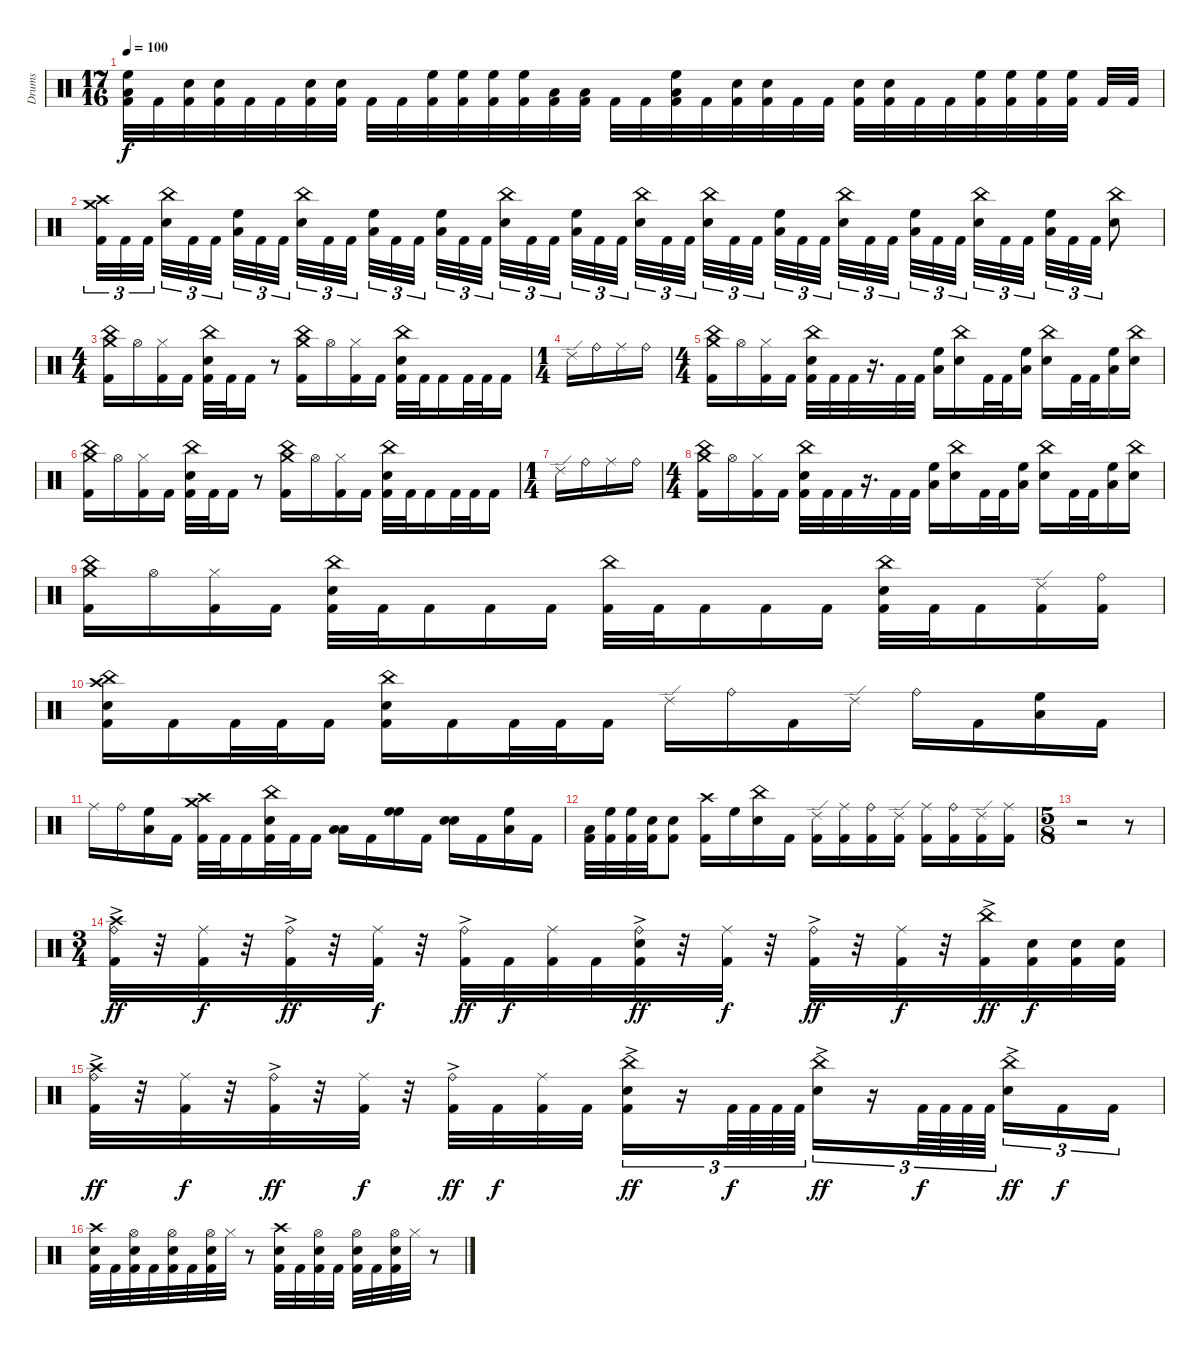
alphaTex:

\track ("Drums" "Drums") {instrument percussion}
\staff {score}
\articulation defaults
\ts (17 16)
\tempo 100
\clef neutral
\ks c
("High Floor Tom (hit)" "Low Tom (hit)" "Kick (hit) 2").32{dy f} "Kick (hit) 2".32 ("Electric Snare (hit)" "Kick (hit) 2").32 ("Electric Snare (hit)" "Kick (hit) 2").32 "Kick (hit) 2".32 "Kick (hit) 2".32 ("Electric Snare (hit)" "Kick (hit) 2").32 ("Electric Snare (hit)" "Kick (hit) 2").32 "Kick (hit) 2".32 "Kick (hit) 2".32 ("High Floor Tom (hit)" "Kick (hit) 2").32 ("High Floor Tom (hit)" "Kick (hit) 2").32 ("High Floor Tom (hit)" "Kick (hit) 2").32 ("High Floor Tom (hit)" "Kick (hit) 2").32 ("Low Tom (hit)" "Kick (hit) 2").32 ("Low Tom (hit)" "Kick (hit) 2").32 "Kick (hit) 2".32 "Kick (hit) 2".32 ("High Floor Tom (hit)" "Low Tom (hit)" "Kick (hit) 2").32 "Kick (hit) 2".32 ("Electric Snare (hit)" "Kick (hit) 2").32 ("Electric Snare (hit)" "Kick (hit) 2").32 "Kick (hit) 2".32 "Kick (hit) 2".32 ("Electric Snare (hit)" "Kick (hit) 2").32 ("Electric Snare (hit)" "Kick (hit) 2").32 "Kick (hit) 2".32 "Kick (hit) 2".32 ("High Floor Tom (hit)" "Kick (hit) 2").32 ("High Floor Tom (hit)" "Kick (hit) 2").32 ("High Floor Tom (hit)" "Kick (hit) 2").32 ("High Floor Tom (hit)" "Kick (hit) 2").32 "Kick (hit) 2".32 "Kick (hit) 2".32 |
("Crash high (hit)" "Crash medium (hit)" "Kick (hit) 2").32{tu (3 2)} "Kick (hit) 2".32{tu (3 2)} "Kick (hit) 2".32{tu (3 2)} ("China (hit)" "Electric Snare (hit)").32{tu (3 2)} "Kick (hit) 2".32{tu (3 2)} "Kick (hit) 2".32{tu (3 2)} ("High Floor Tom (hit)" "Low Tom (hit)").32{tu (3 2)} "Kick (hit) 2".32{tu (3 2)} "Kick (hit) 2".32{tu (3 2)} ("China (hit)" "Electric Snare (hit)").32{tu (3 2)} "Kick (hit) 2".32{tu (3 2)} "Kick (hit) 2".32{tu (3 2)} ("High Floor Tom (hit)" "Low Tom (hit)").32{tu (3 2)} "Kick (hit) 2".32{tu (3 2)} "Kick (hit) 2".32{tu (3 2)} ("High Floor Tom (hit)" "Low Tom (hit)").32{tu (3 2)} "Kick (hit) 2".32{tu (3 2)} "Kick (hit) 2".32{tu (3 2)} ("China (hit)" "Electric Snare (hit)").32{tu (3 2)} "Kick (hit) 2".32{tu (3 2)} "Kick (hit) 2".32{tu (3 2)} ("High Floor Tom (hit)" "Low Tom (hit)").32{tu (3 2)} "Kick (hit) 2".32{tu (3 2)} "Kick (hit) 2".32{tu (3 2)} ("China (hit)" "Electric Snare (hit)").32{tu (3 2)} "Kick (hit) 2".32{tu (3 2)} "Kick (hit) 2".32{tu (3 2)} ("China (hit)" "Electric Snare (hit)").32{tu (3 2)} "Kick (hit) 2".32{tu (3 2)} "Kick (hit) 2".32{tu (3 2)} ("High Floor Tom (hit)" "Low Tom (hit)").32{tu (3 2)} "Kick (hit) 2".32{tu (3 2)} "Kick (hit) 2".32{tu (3 2)} ("China (hit)" "Electric Snare (hit)").32{tu (3 2)} "Kick (hit) 2".32{tu (3 2)} "Kick (hit) 2".32{tu (3 2)} ("High Floor Tom (hit)" "Low Tom (hit)").32{tu (3 2)} "Kick (hit) 2".32{tu (3 2)} "Kick (hit) 2".32{tu (3 2)} ("China (hit)" "Electric Snare (hit)").32{tu (3 2)} "Kick (hit) 2".32{tu (3 2)} "Kick (hit) 2".32{tu (3 2)} ("High Floor Tom (hit)" "Low Tom (hit)").32{tu (3 2)} "Kick (hit) 2".32{tu (3 2)} "Kick (hit) 2".32{tu (3 2)} ("China (hit)" "Electric Snare (hit)").8 |
\ts (4 4)
("China (hit)" "Crash medium (hit)" "Kick (hit) 2").16 "Hi-Hat (open)".16 ("Hi-Hat (closed)" "Kick (hit) 2").16 "Kick (hit) 2".16 ("China (hit)" "Electric Snare (hit)" "Kick (hit) 2").32 "Kick (hit) 2".32 "Kick (hit) 2".16 r.8 ("China (hit)" "Crash medium (hit)" "Kick (hit) 2").16 "Hi-Hat (open)".16 ("Hi-Hat (closed)" "Kick (hit) 2").16 "Kick (hit) 2".16 ("China (hit)" "Electric Snare (hit)" "Kick (hit) 2").32 "Kick (hit) 2".32 "Kick (hit) 2".16 "Kick (hit) 2".32 "Kick (hit) 2".32 "Kick (hit) 2".16 |
\ts (1 4)
"Ride (edge) 2".16 "Ride (bell)".16 "Ride (middle)".16 "Ride (bell)".16 |
\ts (4 4)
("China (hit)" "Crash medium (hit)" "Kick (hit) 2").16 "Hi-Hat (open)".16 ("Hi-Hat (closed)" "Kick (hit) 2").16 "Kick (hit) 2".16 ("China (hit)" "Electric Snare (hit)" "Kick (hit) 2").32 "Kick (hit) 2".32 "Kick (hit) 2".32 r.16{d} "Kick (hit) 2".32 "Kick (hit) 2".32 ("High Floor Tom (hit)" "Low Tom (hit)").16 ("Electric Snare (hit)" "China (hit)").16 "Kick (hit) 2".32 "Kick (hit) 2".32 ("High Floor Tom (hit)" "Low Tom (hit)").16 ("Electric Snare (hit)" "China (hit)").16 "Kick (hit) 2".32 "Kick (hit) 2".32 ("High Floor Tom (hit)" "Low Tom (hit)").16 ("Electric Snare (hit)" "China (hit)").16 |
("China (hit)" "Crash medium (hit)" "Kick (hit) 2").16 "Hi-Hat (open)".16 ("Hi-Hat (closed)" "Kick (hit) 2").16 "Kick (hit) 2".16 ("China (hit)" "Electric Snare (hit)" "Kick (hit) 2").32 "Kick (hit) 2".32 "Kick (hit) 2".16 r.8 ("China (hit)" "Crash medium (hit)" "Kick (hit) 2").16 "Hi-Hat (open)".16 ("Hi-Hat (closed)" "Kick (hit) 2").16 "Kick (hit) 2".16 ("China (hit)" "Electric Snare (hit)" "Kick (hit) 2").32 "Kick (hit) 2".32 "Kick (hit) 2".16 "Kick (hit) 2".32 "Kick (hit) 2".32 "Kick (hit) 2".16 |
\ts (1 4)
"Ride (edge) 2".16 "Ride (bell)".16 "Ride (middle)".16 "Ride (bell)".16 |
\ts (4 4)
("China (hit)" "Crash medium (hit)" "Kick (hit) 2").16 "Hi-Hat (open)".16 ("Hi-Hat (closed)" "Kick (hit) 2").16 "Kick (hit) 2".16 ("China (hit)" "Electric Snare (hit)" "Kick (hit) 2").32 "Kick (hit) 2".32 "Kick (hit) 2".32 r.16{d} "Kick (hit) 2".32 "Kick (hit) 2".32 ("High Floor Tom (hit)" "Low Tom (hit)").16 ("Electric Snare (hit)" "China (hit)").16 "Kick (hit) 2".32 "Kick (hit) 2".32 ("High Floor Tom (hit)" "Low Tom (hit)").16 ("Electric Snare (hit)" "China (hit)").16 "Kick (hit) 2".32 "Kick (hit) 2".32 ("High Floor Tom (hit)" "Low Tom (hit)").16 ("Electric Snare (hit)" "China (hit)").16 |
("China (hit)" "Crash medium (hit)" "Kick (hit) 2").16 "Hi-Hat (open)".16 ("Hi-Hat (closed)" "Kick (hit) 2").16 "Kick (hit) 2".16 ("China (hit)" "Electric Snare (hit)" "Kick (hit) 2").32 "Kick (hit) 2".32 "Kick (hit) 2".16 "Kick (hit) 2".16 "Kick (hit) 2".16 ("China (hit)" "Kick (hit) 2").32 "Kick (hit) 2".32 "Kick (hit) 2".16 "Kick (hit) 2".16 "Kick (hit) 2".16 ("China (hit)" "Electric Snare (hit)" "Kick (hit) 2").32 "Kick (hit) 2".32 "Kick (hit) 2".16 ("Kick (hit) 2" "Ride (edge) 2").16 ("Kick (hit) 2" "Ride (bell)").16 |
("China (hit)" "Electric Snare (hit)" "Kick (hit) 2" "Crash high (hit)").16 "Kick (hit) 2".16 "Kick (hit) 2".32 "Kick (hit) 2".32 "Kick (hit) 2".16 ("China (hit)" "Electric Snare (hit)" "Kick (hit) 2").16 "Kick (hit) 2".16 "Kick (hit) 2".32 "Kick (hit) 2".32 "Kick (hit) 2".16 "Ride (edge) 2".16 "Ride (bell)".16 "Kick (hit) 2".16 "Ride (edge) 2".16 "Ride (bell)".16 "Kick (hit) 2".16 ("Low Tom (hit)" "High Floor Tom (hit)").16 "Kick (hit) 2".16 |
"Ride (middle)".16 "Ride (bell)".16 ("Low Tom (hit)" "High Floor Tom (hit)").16 "Kick (hit) 2".16 ("Crash high (hit)" "Crash medium (hit)" "Kick (hit) 2").32 "Kick (hit) 2".32 "Kick (hit) 2".16 ("Kick (hit) 2" "China (hit)" "Electric Snare (hit)").32 "Kick (hit) 2".32 "Kick (hit) 2".16 ("Low Tom (hit)" "Low Tom (hit)").16 "Kick (hit) 2".16 ("High Floor Tom (hit)" "High Floor Tom (hit)").16 "Kick (hit) 2".16 ("Electric Snare (hit)" "Electric Snare (hit)").16 "Kick (hit) 2".16 ("Low Tom (hit)" "High Floor Tom (hit)").16 "Kick (hit) 2".16 |
("Kick (hit) 2" "Low Tom (hit)").32 ("High Floor Tom (hit)" "Kick (hit) 2").32 ("High Floor Tom (hit)" "Kick (hit) 2").32 ("Electric Snare (hit)" "Kick (hit) 2").32 ("Electric Snare (hit)" "Kick (hit) 2").8 ("Crash high (hit)" "Kick (hit) 2").16 "High Floor Tom (hit)".16 ("Electric Snare (hit)" "China (hit)").16 "Kick (hit) 2".16 ("Kick (hit) 2" "Ride (edge) 2").16 ("Kick (hit) 2" "Ride (middle)").16 ("Kick (hit) 2" "Ride (bell)").16 ("Kick (hit) 2" "Ride (edge) 2").16 ("Kick (hit) 2" "Ride (middle)").16 ("Kick (hit) 2" "Ride (bell)").16 ("Kick (hit) 2" "Ride (edge) 2").16 ("Kick (hit) 2" "Ride (middle)").16 |
\ts (5 8)
r.2 r.8 |
\ts (3 4)
("Ride (bell)"{ac} "Kick (hit) 2" "Crash high (hit)").32{dy ff} r.32 ("Ride (middle)" "Kick (hit) 2").32{dy f} r.32 ("Ride (bell)"{ac} "Kick (hit) 2").32{dy ff} r.32 ("Ride (middle)" "Kick (hit) 2").32{dy f} r.32 ("Ride (bell)"{ac} "Kick (hit) 2").32{dy ff} "Kick (hit) 2".32{dy f} ("Ride (middle)" "Kick (hit) 2").32 "Kick (hit) 2".32 ("Ride (bell)"{ac} "Kick (hit) 2" "Electric Snare (hit)").32{dy ff} r.32 ("Ride (middle)" "Kick (hit) 2").32{dy f} r.32 ("Ride (bell)"{ac} "Kick (hit) 2").32{dy ff} r.32 ("Ride (middle)" "Kick (hit) 2").32{dy f} r.32 ("China (hit)"{ac} "Kick (hit) 2").32{dy ff} ("Kick (hit) 2" "Electric Snare (hit)").32{dy f} ("Kick (hit) 2" "Electric Snare (hit)").32 ("Kick (hit) 2" "Electric Snare (hit)").32 |
("Ride (bell)"{ac} "Kick (hit) 2" "Crash high (hit)").32{dy ff} r.32 ("Ride (middle)" "Kick (hit) 2").32{dy f} r.32 ("Ride (bell)"{ac} "Kick (hit) 2").32{dy ff} r.32 ("Ride (middle)" "Kick (hit) 2").32{dy f} r.32 ("Ride (bell)"{ac} "Kick (hit) 2").32{dy ff} "Kick (hit) 2".32{dy f} ("Ride (middle)" "Kick (hit) 2").32 "Kick (hit) 2".32{beam splitsecondary} ("China (hit)" "Kick (hit) 2" "Electric Snare (hit)"{ac}).16{tu (3 2) dy ff} r.16{tu (3 2)} "Kick (hit) 2".64{tu (3 2) dy f} "Kick (hit) 2".64{tu (3 2)} "Kick (hit) 2".64{tu (3 2)} "Kick (hit) 2".64{tu (3 2)} ("China (hit)" "Electric Snare (hit)"{ac}).16{tu (3 2) dy ff} r.16{tu (3 2)} "Kick (hit) 2".64{tu (3 2) dy f} "Kick (hit) 2".64{tu (3 2)} "Kick (hit) 2".64{tu (3 2)} "Kick (hit) 2".64{tu (3 2) beam splitsecondary} ("China (hit)" "Electric Snare (hit)"{ac}).16{tu (3 2) dy ff} "Kick (hit) 2".16{tu (3 2) dy f} "Kick (hit) 2".16{tu (3 2)} |
("Crash high (hit)" "Electric Snare (hit)" "Kick (hit) 2").32 "Kick (hit) 2".32 ("Kick (hit) 2" "Electric Snare (hit)" "Hi-Hat (open)").32 "Kick (hit) 2".32 ("Hi-Hat (open)" "Electric Snare (hit)" "Kick (hit) 2").32 "Kick (hit) 2".32 ("Hi-Hat (open)" "Electric Snare (hit)" "Kick (hit) 2").32 "Hi-Hat (closed)".32 r.8 ("Crash high (hit)" "Electric Snare (hit)" "Kick (hit) 2").32 "Kick (hit) 2".32 ("Kick (hit) 2" "Electric Snare (hit)" "Hi-Hat (open)").32 "Kick (hit) 2".32 ("Hi-Hat (open)" "Electric Snare (hit)" "Kick (hit) 2").32 "Kick (hit) 2".32 ("Hi-Hat (open)" "Electric Snare (hit)" "Kick (hit) 2").32 "Hi-Hat (closed)".32 r.8
